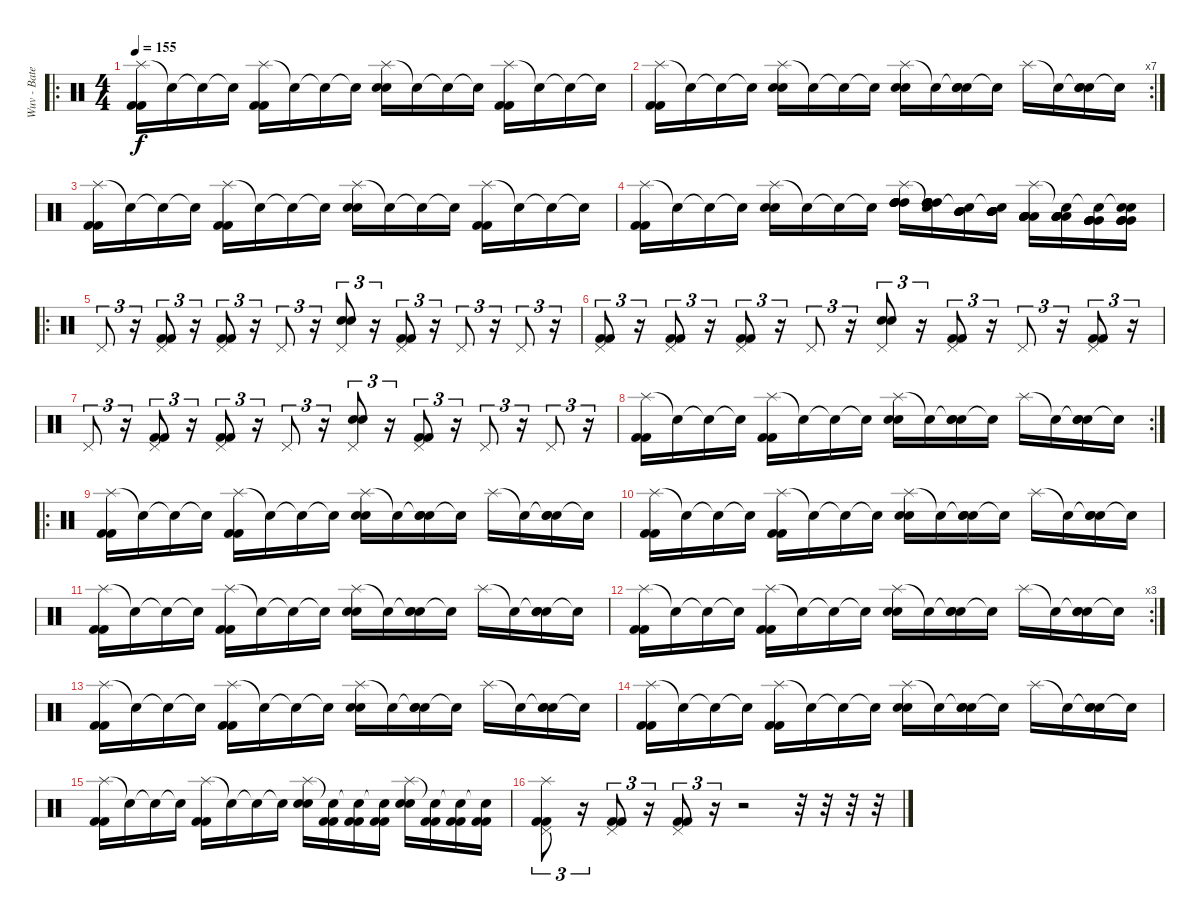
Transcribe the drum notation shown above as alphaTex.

\track ("Wuv - Bateria" "Wuv - Bate") {instrument percussion}
\staff {score}
\articulation defaults
\ro
\ts (4 4)
\tempo 155
\clef neutral
\ks c
("Splash (hit)" "Kick (hit) 2" "Kick (hit) 2").16{dy f} "Snare (hit)"{t}.16 "Snare (hit)"{t}.16 "Snare (hit)"{t}.16 ("Splash (hit)" "Kick (hit) 2" "Kick (hit) 2").16 "Snare (hit)"{t}.16 "Snare (hit)"{t}.16 "Snare (hit)"{t}.16 ("Splash (hit)" "Electric Snare (hit)" "Electric Snare (hit)").16 "Snare (hit)"{t}.16 "Snare (hit)"{t}.16 "Snare (hit)"{t}.16 ("Splash (hit)" "Kick (hit) 2" "Kick (hit) 2").16 "Snare (hit)"{t}.16 "Snare (hit)"{t}.16 "Snare (hit)"{t}.16 |
\rc 7
("Splash (hit)" "Kick (hit) 2" "Kick (hit) 2").16 "Snare (hit)"{t}.16 "Snare (hit)"{t}.16 "Snare (hit)"{t}.16 ("Splash (hit)" "Electric Snare (hit)" "Electric Snare (hit)").16 "Snare (hit)"{t}.16 "Snare (hit)"{t}.16 "Snare (hit)"{t}.16 ("Splash (hit)" "Electric Snare (hit)" "Electric Snare (hit)").16 "Snare (hit)"{t}.16 ("Snare (hit)"{t} "Electric Snare (hit)" "Electric Snare (hit)").16 "Snare (hit)"{t}.16 "Splash (hit)".16 "Snare (hit)"{t}.16 ("Snare (hit)"{t} "Electric Snare (hit)" "Electric Snare (hit)").16 "Snare (hit)"{t}.16 |
("Splash (hit)" "Kick (hit) 2" "Kick (hit) 2").16 "Snare (hit)"{t}.16 "Snare (hit)"{t}.16 "Snare (hit)"{t}.16 ("Splash (hit)" "Kick (hit) 2" "Kick (hit) 2").16 "Snare (hit)"{t}.16 "Snare (hit)"{t}.16 "Snare (hit)"{t}.16 ("Splash (hit)" "Electric Snare (hit)" "Electric Snare (hit)").16 "Snare (hit)"{t}.16 "Snare (hit)"{t}.16 "Snare (hit)"{t}.16 ("Splash (hit)" "Kick (hit) 2" "Kick (hit) 2").16 "Snare (hit)"{t}.16 "Snare (hit)"{t}.16 "Snare (hit)"{t}.16 |
("Splash (hit)" "Kick (hit) 2" "Kick (hit) 2").16 "Snare (hit)"{t}.16 "Snare (hit)"{t}.16 "Snare (hit)"{t}.16 ("Splash (hit)" "Electric Snare (hit)" "Electric Snare (hit)").16 "Snare (hit)"{t}.16 "Snare (hit)"{t}.16 "Snare (hit)"{t}.16 ("Splash (hit)" "High Tom (hit)" "High Tom (hit)" "High Tom (hit)" "High Tom (hit)" "High Tom (hit)").16 ("Snare (hit)"{t} "High Tom (hit)" "High Tom (hit)" "High Tom (hit)" "High Tom (hit)" "High Tom (hit)").16 ("Snare (hit)"{t} "Mid Tom (hit)" "Mid Tom (hit)" "Mid Tom (hit)" "Mid Tom (hit)" "Mid Tom (hit)").16 ("Snare (hit)"{t} "Mid Tom (hit)" "Mid Tom (hit)" "Mid Tom (hit)" "Mid Tom (hit)" "Mid Tom (hit)").16 ("Splash (hit)" "Low Tom (hit)" "Low Tom (hit)" "Low Tom (hit)" "Low Tom (hit)" "Low Tom (hit)").16 ("Snare (hit)"{t} "Low Tom (hit)" "Low Tom (hit)" "Low Tom (hit)" "Low Tom (hit)" "Low Tom (hit)").16 ("Snare (hit)"{t} "Very Low Tom (hit)" "Very Low Tom (hit)" "Very Low Tom (hit)" "Very Low Tom (hit)" "Very Low Tom (hit)").16 ("Snare (hit)"{t} "Very Low Tom (hit)" "Very Low Tom (hit)" "Very Low Tom (hit)" "Very Low Tom (hit)" "Metronome (bell)").16 |
\ro "Pedal Hi-Hat (hit)".8{tu (3 2)}
r.16{tu (3 2)} ("Pedal Hi-Hat (hit)" "Kick (hit) 2" "Kick (hit) 2").8{tu (3 2)} r.16{tu (3 2)} ("Pedal Hi-Hat (hit)" "Kick (hit) 2" "Kick (hit) 2").8{tu (3 2)} r.16{tu (3 2)} "Pedal Hi-Hat (hit)".8{tu (3 2)} r.16{tu (3 2)} ("Pedal Hi-Hat (hit)" "Electric Snare (hit)" "Electric Snare (hit)").8{tu (3 2)} r.16{tu (3 2)} ("Pedal Hi-Hat (hit)" "Kick (hit) 2" "Kick (hit) 2").8{tu (3 2)} r.16{tu (3 2)} "Pedal Hi-Hat (hit)".8{tu (3 2)} r.16{tu (3 2)} "Pedal Hi-Hat (hit)".8{tu (3 2)} r.16{tu (3 2)} |
("Pedal Hi-Hat (hit)" "Kick (hit) 2" "Kick (hit) 2").8{tu (3 2)} r.16{tu (3 2)} ("Pedal Hi-Hat (hit)" "Kick (hit) 2" "Kick (hit) 2").8{tu (3 2)} r.16{tu (3 2)} ("Pedal Hi-Hat (hit)" "Kick (hit) 2" "Kick (hit) 2").8{tu (3 2)} r.16{tu (3 2)} "Pedal Hi-Hat (hit)".8{tu (3 2)} r.16{tu (3 2)} ("Pedal Hi-Hat (hit)" "Electric Snare (hit)" "Electric Snare (hit)").8{tu (3 2)} r.16{tu (3 2)} ("Pedal Hi-Hat (hit)" "Kick (hit) 2" "Kick (hit) 2").8{tu (3 2)} r.16{tu (3 2)} "Pedal Hi-Hat (hit)".8{tu (3 2)} r.16{tu (3 2)} ("Pedal Hi-Hat (hit)" "Kick (hit) 2" "Kick (hit) 2").8{tu (3 2)} r.16{tu (3 2)} |
"Pedal Hi-Hat (hit)".8{tu (3 2)} r.16{tu (3 2)} ("Pedal Hi-Hat (hit)" "Kick (hit) 2" "Kick (hit) 2").8{tu (3 2)} r.16{tu (3 2)} ("Pedal Hi-Hat (hit)" "Kick (hit) 2" "Kick (hit) 2").8{tu (3 2)} r.16{tu (3 2)} "Pedal Hi-Hat (hit)".8{tu (3 2)} r.16{tu (3 2)} ("Pedal Hi-Hat (hit)" "Electric Snare (hit)" "Electric Snare (hit)").8{tu (3 2)} r.16{tu (3 2)} ("Pedal Hi-Hat (hit)" "Kick (hit) 2" "Kick (hit) 2").8{tu (3 2)} r.16{tu (3 2)} "Pedal Hi-Hat (hit)".8{tu (3 2)} r.16{tu (3 2)} "Pedal Hi-Hat (hit)".8{tu (3 2)} r.16{tu (3 2)} |
\rc 2
("Splash (hit)" "Kick (hit) 2" "Kick (hit) 2").16 "Snare (hit)"{t}.16 "Snare (hit)"{t}.16 "Snare (hit)"{t}.16 ("Splash (hit)" "Kick (hit) 2" "Kick (hit) 2").16 "Snare (hit)"{t}.16 "Snare (hit)"{t}.16 "Snare (hit)"{t}.16 ("Splash (hit)" "Electric Snare (hit)" "Electric Snare (hit)").16 "Snare (hit)"{t}.16 ("Snare (hit)"{t} "Electric Snare (hit)" "Electric Snare (hit)").16 "Snare (hit)"{t}.16 "Splash (hit)".16 "Snare (hit)"{t}.16 ("Snare (hit)"{t} "Electric Snare (hit)" "Electric Snare (hit)").16 "Snare (hit)"{t}.16 |
\ro
("Splash (hit)" "Kick (hit) 2" "Kick (hit) 2").16 "Snare (hit)"{t}.16 "Snare (hit)"{t}.16 "Snare (hit)"{t}.16 ("Splash (hit)" "Kick (hit) 2" "Kick (hit) 2").16 "Snare (hit)"{t}.16 "Snare (hit)"{t}.16 "Snare (hit)"{t}.16 ("Splash (hit)" "Electric Snare (hit)" "Electric Snare (hit)").16 "Snare (hit)"{t}.16 ("Snare (hit)"{t} "Electric Snare (hit)" "Electric Snare (hit)").16 "Snare (hit)"{t}.16 "Splash (hit)".16 "Snare (hit)"{t}.16 ("Snare (hit)"{t} "Electric Snare (hit)" "Electric Snare (hit)").16 "Snare (hit)"{t}.16 |
("Splash (hit)" "Kick (hit) 2" "Kick (hit) 2").16 "Snare (hit)"{t}.16 "Snare (hit)"{t}.16 "Snare (hit)"{t}.16 ("Splash (hit)" "Kick (hit) 2" "Kick (hit) 2").16 "Snare (hit)"{t}.16 "Snare (hit)"{t}.16 "Snare (hit)"{t}.16 ("Splash (hit)" "Electric Snare (hit)" "Electric Snare (hit)").16 "Snare (hit)"{t}.16 ("Snare (hit)"{t} "Electric Snare (hit)" "Electric Snare (hit)").16 "Snare (hit)"{t}.16 "Splash (hit)".16 "Snare (hit)"{t}.16 ("Snare (hit)"{t} "Electric Snare (hit)" "Electric Snare (hit)").16 "Snare (hit)"{t}.16 |
("Splash (hit)" "Kick (hit) 2" "Kick (hit) 2").16 "Snare (hit)"{t}.16 "Snare (hit)"{t}.16 "Snare (hit)"{t}.16 ("Splash (hit)" "Kick (hit) 2" "Kick (hit) 2").16 "Snare (hit)"{t}.16 "Snare (hit)"{t}.16 "Snare (hit)"{t}.16 ("Splash (hit)" "Electric Snare (hit)" "Electric Snare (hit)").16 "Snare (hit)"{t}.16 ("Snare (hit)"{t} "Electric Snare (hit)" "Electric Snare (hit)").16 "Snare (hit)"{t}.16 "Splash (hit)".16 "Snare (hit)"{t}.16 ("Snare (hit)"{t} "Electric Snare (hit)" "Electric Snare (hit)").16 "Snare (hit)"{t}.16 |
\rc 3
("Splash (hit)" "Kick (hit) 2" "Kick (hit) 2").16 "Snare (hit)"{t}.16 "Snare (hit)"{t}.16 "Snare (hit)"{t}.16 ("Splash (hit)" "Kick (hit) 2" "Kick (hit) 2").16 "Snare (hit)"{t}.16 "Snare (hit)"{t}.16 "Snare (hit)"{t}.16 ("Splash (hit)" "Electric Snare (hit)" "Electric Snare (hit)").16 "Snare (hit)"{t}.16 ("Snare (hit)"{t} "Electric Snare (hit)" "Electric Snare (hit)").16 "Snare (hit)"{t}.16 "Splash (hit)".16 "Snare (hit)"{t}.16 ("Snare (hit)"{t} "Electric Snare (hit)" "Electric Snare (hit)").16 "Snare (hit)"{t}.16 |
("Splash (hit)" "Kick (hit) 2" "Kick (hit) 2").16 "Snare (hit)"{t}.16 "Snare (hit)"{t}.16 "Snare (hit)"{t}.16 ("Splash (hit)" "Kick (hit) 2" "Kick (hit) 2").16 "Snare (hit)"{t}.16 "Snare (hit)"{t}.16 "Snare (hit)"{t}.16 ("Splash (hit)" "Electric Snare (hit)" "Electric Snare (hit)").16 "Snare (hit)"{t}.16 ("Snare (hit)"{t} "Electric Snare (hit)" "Electric Snare (hit)").16 "Snare (hit)"{t}.16 "Splash (hit)".16 "Snare (hit)"{t}.16 ("Snare (hit)"{t} "Electric Snare (hit)" "Electric Snare (hit)").16 "Snare (hit)"{t}.16 |
("Splash (hit)" "Kick (hit) 2" "Kick (hit) 2").16 "Snare (hit)"{t}.16 "Snare (hit)"{t}.16 "Snare (hit)"{t}.16 ("Splash (hit)" "Kick (hit) 2" "Kick (hit) 2").16 "Snare (hit)"{t}.16 "Snare (hit)"{t}.16 "Snare (hit)"{t}.16 ("Splash (hit)" "Electric Snare (hit)" "Electric Snare (hit)").16 "Snare (hit)"{t}.16 ("Snare (hit)"{t} "Electric Snare (hit)" "Electric Snare (hit)").16 "Snare (hit)"{t}.16 "Splash (hit)".16 "Snare (hit)"{t}.16 ("Snare (hit)"{t} "Electric Snare (hit)" "Electric Snare (hit)").16 "Snare (hit)"{t}.16 |
("Splash (hit)" "Kick (hit) 2" "Kick (hit) 2").16 "Snare (hit)"{t}.16 "Snare (hit)"{t}.16 "Snare (hit)"{t}.16 ("Splash (hit)" "Kick (hit) 2" "Kick (hit) 2").16 "Snare (hit)"{t}.16 "Snare (hit)"{t}.16 "Snare (hit)"{t}.16 ("Splash (hit)" "Electric Snare (hit)" "Electric Snare (hit)").16 ("Snare (hit)"{t} "Kick (hit) 2" "Kick (hit) 2").16 ("Snare (hit)"{t} "Kick (hit) 2" "Kick (hit) 2").16 ("Snare (hit)"{t} "Kick (hit) 2" "Kick (hit) 2").16 ("Splash (hit)" "Electric Snare (hit)" "Electric Snare (hit)").16 ("Snare (hit)"{t} "Kick (hit) 2" "Kick (hit) 2").16 ("Snare (hit)"{t} "Kick (hit) 2" "Kick (hit) 2").16 ("Snare (hit)"{t} "Kick (hit) 2" "Kick (hit) 2").16 |
("Pedal Hi-Hat (hit)" "Splash (hit)" "Kick (hit) 2" "Kick (hit) 2").8{tu (3 2)} r.16{tu (3 2)} ("Pedal Hi-Hat (hit)" "Kick (hit) 2" "Kick (hit) 2").8{tu (3 2)} r.16{tu (3 2)} ("Pedal Hi-Hat (hit)" "Kick (hit) 2" "Kick (hit) 2").8{tu (3 2)} r.16{tu (3 2)} r.2 r.32 r.32 r.32 r.32
